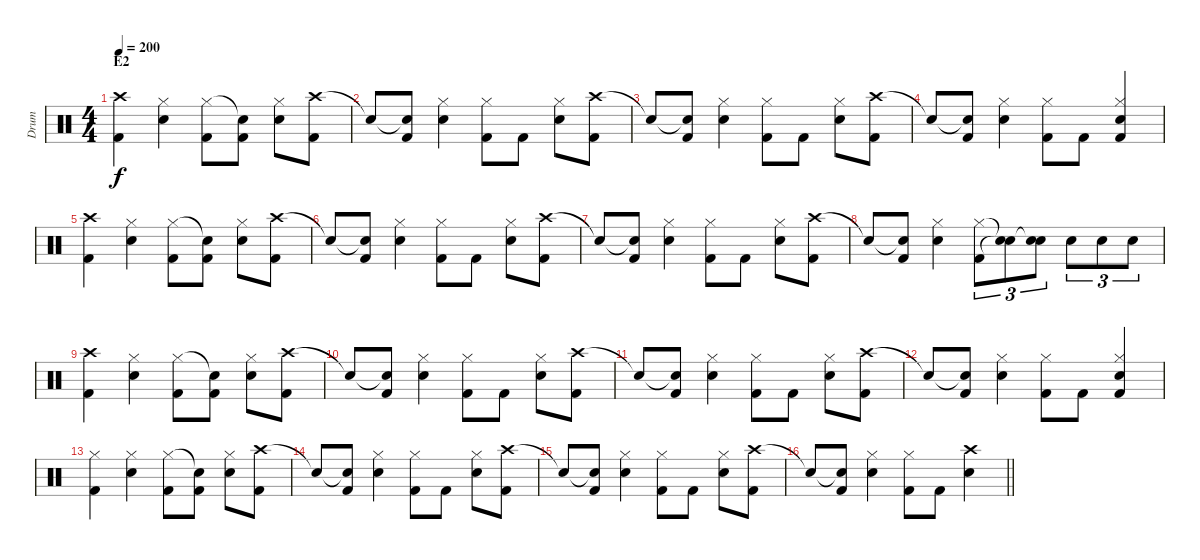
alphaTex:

\track ("Drum" "Drum") {instrument percussion}
\staff {score}
\articulation defaults
\ts (4 4)
\section ("" "E2")
\tempo 200
\clef neutral
\ks c
("Crash high (hit)" "Kick (hit) 2").4{dy f} ("Hi-Hat (closed)" "Snare (hit) 2").4 ("Hi-Hat (closed)" "Kick (hit) 2").8 ("Snare (hit)"{t} "Kick (hit) 2").8 ("Hi-Hat (closed)" "Snare (hit) 2").8 ("Crash high (hit)" "Kick (hit) 2").8 |
"Snare (hit)"{t}.8 ("Snare (hit)"{t} "Kick (hit) 2").8 ("Hi-Hat (closed)" "Snare (hit) 2").4 ("Hi-Hat (closed)" "Kick (hit) 2").8 "Kick (hit) 2".8 ("Hi-Hat (closed)" "Snare (hit) 2").8 ("Crash high (hit)" "Kick (hit) 2").8 |
"Snare (hit)"{t}.8 ("Snare (hit)"{t} "Kick (hit) 2").8 ("Hi-Hat (closed)" "Snare (hit) 2").4 ("Hi-Hat (closed)" "Kick (hit) 2").8 "Kick (hit) 2".8 ("Hi-Hat (closed)" "Snare (hit) 2").8 ("Crash high (hit)" "Kick (hit) 2").8 |
"Snare (hit)"{t}.8 ("Snare (hit)"{t} "Kick (hit) 2").8 ("Hi-Hat (closed)" "Snare (hit) 2").4 ("Hi-Hat (closed)" "Kick (hit) 2").8 "Kick (hit) 2".8 ("Hi-Hat (closed)" "Snare (hit) 2" "Kick (hit) 2").4 |
("Crash high (hit)" "Kick (hit) 2").4 ("Hi-Hat (closed)" "Snare (hit) 2").4 ("Hi-Hat (closed)" "Kick (hit) 2").8 ("Snare (hit)"{t} "Kick (hit) 2").8 ("Hi-Hat (closed)" "Snare (hit) 2").8 ("Crash high (hit)" "Kick (hit) 2").8 |
"Snare (hit)"{t}.8 ("Snare (hit)"{t} "Kick (hit) 2").8 ("Hi-Hat (closed)" "Snare (hit) 2").4 ("Hi-Hat (closed)" "Kick (hit) 2").8 "Kick (hit) 2".8 ("Hi-Hat (closed)" "Snare (hit) 2").8 ("Crash high (hit)" "Kick (hit) 2").8 |
"Snare (hit)"{t}.8 ("Snare (hit)"{t} "Kick (hit) 2").8 ("Hi-Hat (closed)" "Snare (hit) 2").4 ("Hi-Hat (closed)" "Kick (hit) 2").8 "Kick (hit) 2".8 ("Hi-Hat (closed)" "Snare (hit) 2").8 ("Crash high (hit)" "Kick (hit) 2").8 |
"Snare (hit)"{t}.8 ("Snare (hit)"{t} "Kick (hit) 2").8 ("Hi-Hat (closed)" "Snare (hit) 2").4 ("Hi-Hat (closed)" "Kick (hit) 2").8{tu (3 2)} ("Snare (hit)"{t} "Snare (hit)"{t}).8{tu (3 2)} ("Snare (hit) 2" "Snare (hit)"{t}).8{tu (3 2)} "Snare (hit) 2".8{tu (3 2)} "Snare (hit) 2".8{tu (3 2)} "Snare (hit) 2".8{tu (3 2)} |
("Crash high (hit)" "Kick (hit) 2").4 ("Hi-Hat (closed)" "Snare (hit) 2").4 ("Hi-Hat (closed)" "Kick (hit) 2").8 ("Snare (hit)"{t} "Kick (hit) 2").8 ("Hi-Hat (closed)" "Snare (hit) 2").8 ("Crash high (hit)" "Kick (hit) 2").8 |
"Snare (hit)"{t}.8 ("Snare (hit)"{t} "Kick (hit) 2").8 ("Hi-Hat (closed)" "Snare (hit) 2").4 ("Hi-Hat (closed)" "Kick (hit) 2").8 "Kick (hit) 2".8 ("Hi-Hat (closed)" "Snare (hit) 2").8 ("Crash high (hit)" "Kick (hit) 2").8 |
"Snare (hit)"{t}.8 ("Snare (hit)"{t} "Kick (hit) 2").8 ("Hi-Hat (closed)" "Snare (hit) 2").4 ("Hi-Hat (closed)" "Kick (hit) 2").8 "Kick (hit) 2".8 ("Hi-Hat (closed)" "Snare (hit) 2").8 ("Crash high (hit)" "Kick (hit) 2").8 |
"Snare (hit)"{t}.8 ("Snare (hit)"{t} "Kick (hit) 2").8 ("Hi-Hat (closed)" "Snare (hit) 2").4 ("Hi-Hat (closed)" "Kick (hit) 2").8 "Kick (hit) 2".8 ("Hi-Hat (closed)" "Snare (hit) 2" "Kick (hit) 2").4 |
("Hi-Hat (closed)" "Kick (hit) 2").4 ("Hi-Hat (closed)" "Snare (hit) 2").4 ("Hi-Hat (closed)" "Kick (hit) 2").8 ("Snare (hit)"{t} "Kick (hit) 2").8 ("Hi-Hat (closed)" "Snare (hit) 2").8 ("Crash high (hit)" "Kick (hit) 2").8 |
"Snare (hit)"{t}.8 ("Snare (hit)"{t} "Kick (hit) 2").8 ("Hi-Hat (closed)" "Snare (hit) 2").4 ("Hi-Hat (closed)" "Kick (hit) 2").8 "Kick (hit) 2".8 ("Hi-Hat (closed)" "Snare (hit) 2").8 ("Crash high (hit)" "Kick (hit) 2").8 |
"Snare (hit)"{t}.8 ("Snare (hit)"{t} "Kick (hit) 2").8 ("Hi-Hat (closed)" "Snare (hit) 2").4 ("Hi-Hat (closed)" "Kick (hit) 2").8 "Kick (hit) 2".8 ("Hi-Hat (closed)" "Snare (hit) 2").8 ("Crash high (hit)" "Kick (hit) 2").8 |
\barLineRight lightlight "Snare (hit)"{t}.8
("Snare (hit)"{t} "Kick (hit) 2").8 ("Hi-Hat (closed)" "Snare (hit) 2").4 ("Hi-Hat (closed)" "Kick (hit) 2").8 "Kick (hit) 2".8 ("Crash high (hit)" "Snare (hit) 2").4
